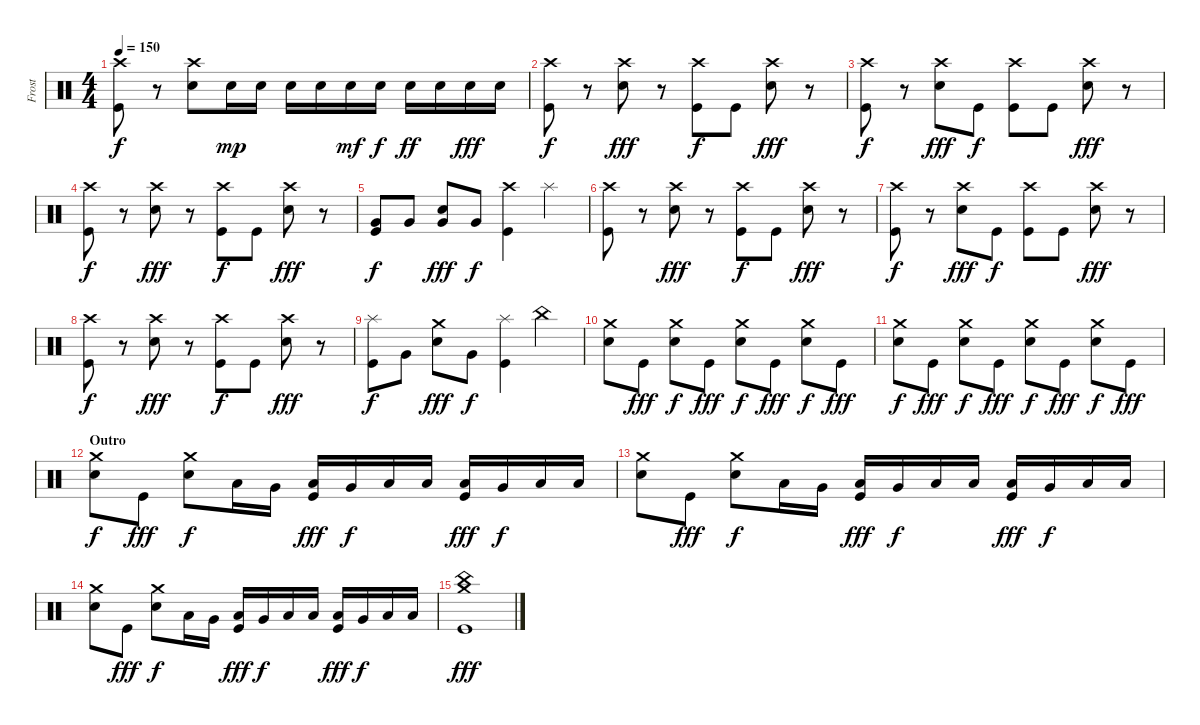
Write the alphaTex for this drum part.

\track ("Frost" "Frost") {instrument percussion}
\staff {score}
\articulation defaults
\ts (4 4)
\tempo 150
\clef neutral
\ks c
("Kick (hit)" "Crash high (hit)").8{dy f} r.8 ("Electric Snare (hit)" "Crash high (hit)").8 "Electric Snare (hit)".16{dy mp} "Electric Snare (hit)".16 "Electric Snare (hit)".16 "Electric Snare (hit)".16 "Electric Snare (hit)".16{dy mf} "Electric Snare (hit)".16{dy f} "Electric Snare (hit)".16{dy ff} "Electric Snare (hit)".16 "Electric Snare (hit)".16{dy fff} "Electric Snare (hit)".16 |
("Kick (hit)" "Crash high (hit)").8{dy f} r.8 ("Electric Snare (hit)" "Crash high (hit)").8{dy fff} r.8 ("Kick (hit)" "Crash high (hit)").8{dy f} "Kick (hit)".8 ("Electric Snare (hit)" "Crash high (hit)").8{dy fff} r.8 |
("Kick (hit)" "Crash high (hit)").8{dy f} r.8 ("Electric Snare (hit)" "Crash high (hit)").8{dy fff} "Kick (hit)".8{dy f} ("Kick (hit)" "Crash high (hit)").8 "Kick (hit)".8 ("Electric Snare (hit)" "Crash high (hit)").8{dy fff} r.8 |
("Kick (hit)" "Crash high (hit)").8{dy f} r.8 ("Electric Snare (hit)" "Crash high (hit)").8{dy fff} r.8 ("Kick (hit)" "Crash high (hit)").8{dy f} "Kick (hit)".8 ("Electric Snare (hit)" "Crash high (hit)").8{dy fff} r.8 |
("Kick (hit)" "Very Low Tom (hit)").8{dy f} "Very Low Tom (hit)".8 ("Electric Snare (hit)" "Very Low Tom (hit)").8{dy fff} "Very Low Tom (hit)".8{dy f} ("Kick (hit)" "Crash high (hit)").4 "Splash (hit)".4 |
("Kick (hit)" "Crash high (hit)").8 r.8 ("Electric Snare (hit)" "Crash high (hit)").8{dy fff} r.8 ("Kick (hit)" "Crash high (hit)").8{dy f} "Kick (hit)".8 ("Electric Snare (hit)" "Crash high (hit)").8{dy fff} r.8 |
("Kick (hit)" "Crash high (hit)").8{dy f} r.8 ("Electric Snare (hit)" "Crash high (hit)").8{dy fff} "Kick (hit)".8{dy f} ("Kick (hit)" "Crash high (hit)").8 "Kick (hit)".8 ("Electric Snare (hit)" "Crash high (hit)").8{dy fff} r.8 |
("Kick (hit)" "Crash high (hit)").8{dy f} r.8 ("Electric Snare (hit)" "Crash high (hit)").8{dy fff} r.8 ("Kick (hit)" "Crash high (hit)").8{dy f} "Kick (hit)".8 ("Electric Snare (hit)" "Crash high (hit)").8{dy fff} r.8 |
("Kick (hit)" "Splash (hit)").8{dy f} "Very Low Tom (hit)".8 ("Electric Snare (hit)" "Crash medium (hit)").8{dy fff} "Very Low Tom (hit)".8{dy f} ("Kick (hit)" "Splash (hit)").4 "China (hit)".4 |
("Crash medium (hit)" "Electric Snare (hit)").8 "Kick (hit)".8{dy fff} ("Crash medium (hit)" "Electric Snare (hit)").8{dy f} "Kick (hit)".8{dy fff} ("Crash medium (hit)" "Electric Snare (hit)").8{dy f} "Kick (hit)".8{dy fff} ("Crash medium (hit)" "Electric Snare (hit)").8{dy f} "Kick (hit)".8{dy fff} |
("Crash medium (hit)" "Electric Snare (hit)").8{dy f} "Kick (hit)".8{dy fff} ("Crash medium (hit)" "Electric Snare (hit)").8{dy f} "Kick (hit)".8{dy fff} ("Crash medium (hit)" "Electric Snare (hit)").8{dy f} "Kick (hit)".8{dy fff} ("Crash medium (hit)" "Electric Snare (hit)").8{dy f} "Kick (hit)".8{dy fff} |
\section ("" "Outro")
("Crash medium (hit)" "Electric Snare (hit)").8{dy f} "Kick (hit)".8{dy fff} ("Crash medium (hit)" "Electric Snare (hit)").8{dy f} "Low Tom (hit)".16 "Very Low Tom (hit)".16 ("Kick (hit)" "Low Tom (hit)").16{dy fff} "Very Low Tom (hit)".16{dy f} "Low Floor Tom (hit)".16 "Low Floor Tom (hit)".16 ("Kick (hit)" "Low Tom (hit)").16{dy fff} "Very Low Tom (hit)".16{dy f} "Low Floor Tom (hit)".16 "Low Floor Tom (hit)".16 |
("Crash medium (hit)" "Electric Snare (hit)").8 "Kick (hit)".8{dy fff} ("Crash medium (hit)" "Electric Snare (hit)").8{dy f} "Low Tom (hit)".16 "Very Low Tom (hit)".16 ("Kick (hit)" "Low Tom (hit)").16{dy fff} "Very Low Tom (hit)".16{dy f} "Low Floor Tom (hit)".16 "Low Floor Tom (hit)".16 ("Kick (hit)" "Low Tom (hit)").16{dy fff} "Very Low Tom (hit)".16{dy f} "Low Floor Tom (hit)".16 "Low Floor Tom (hit)".16 |
("Crash medium (hit)" "Electric Snare (hit)").8 "Kick (hit)".8{dy fff} ("Crash medium (hit)" "Electric Snare (hit)").8{dy f} "Low Tom (hit)".16 "Very Low Tom (hit)".16 ("Kick (hit)" "Low Tom (hit)").16{dy fff} "Very Low Tom (hit)".16{dy f} "Low Floor Tom (hit)".16 "Low Floor Tom (hit)".16 ("Kick (hit)" "Low Tom (hit)").16{dy fff} "Very Low Tom (hit)".16{dy f} "Low Floor Tom (hit)".16 "Low Floor Tom (hit)".16 |
("Kick (hit)" "China (hit)" "Crash medium (hit)").1{dy fff}
